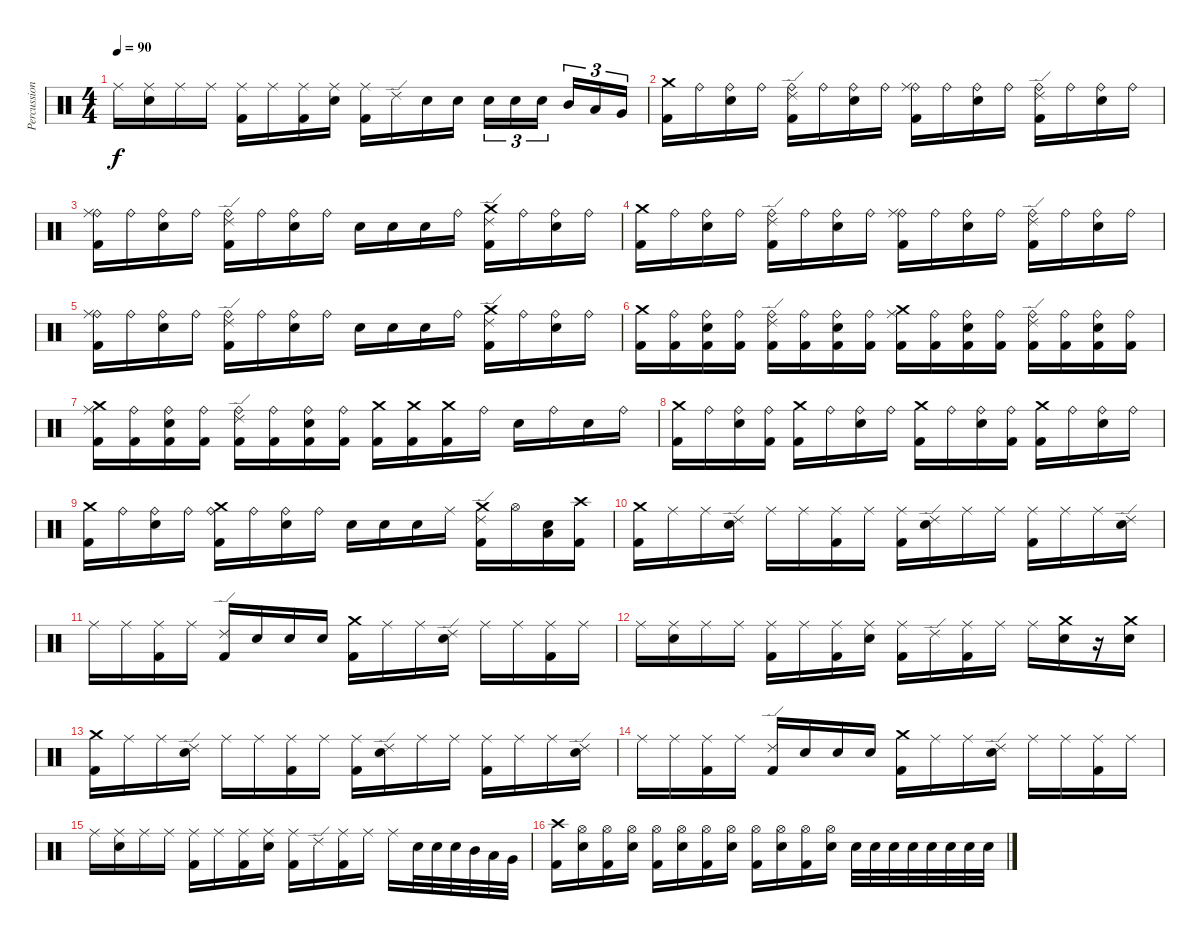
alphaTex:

\track ("Percussion" "Percussion") {instrument percussion}
\staff {score}
\articulation defaults
\ts (4 4)
\tempo 90
\clef neutral
\ks c "Ride (middle)".16{dy f}
("Ride (middle)" "Snare (hit) 2").16 "Ride (middle)".16 "Ride (middle)".16 ("Ride (middle)" "Kick (hit) 2").16 "Ride (middle)".16 ("Ride (middle)" "Kick (hit) 2").16 ("Ride (middle)" "Snare (hit) 2").16 ("Ride (middle)" "Kick (hit) 2").16 "Ride (edge) 2".16 "Snare (hit) 2".16 "Snare (hit) 2".16 "Snare (hit) 2".16{tu (3 2)} "Snare (hit) 2".16{tu (3 2)} "Snare (hit) 2".16{tu (3 2) beam splitsecondary} "Mid Tom (hit)".16{tu (3 2)} "Low Tom (hit)".16{tu (3 2)} "Very Low Tom (hit)".16{tu (3 2)} |
("Crash medium (hit)" "Kick (hit) 2").16 "Ride (bell)".16 ("Ride (bell)" "Snare (hit) 2").16 "Ride (bell)".16 ("Ride (bell)" "Ride (edge) 2" "Kick (hit) 2").16 "Ride (bell)".16 ("Ride (bell)" "Snare (hit) 2").16 "Ride (bell)".16 ("Ride (bell)" "Ride (middle)" "Kick (hit) 2").16 "Ride (bell)".16 ("Ride (bell)" "Snare (hit) 2").16 "Ride (bell)".16 ("Ride (bell)" "Ride (edge) 2" "Kick (hit) 2").16 "Ride (bell)".16 ("Ride (bell)" "Snare (hit) 2").16 "Ride (bell)".16 |
("Ride (bell)" "Ride (middle)" "Kick (hit) 2").16 "Ride (bell)".16 ("Ride (bell)" "Snare (hit) 2").16 "Ride (bell)".16 ("Ride (bell)" "Ride (edge) 2" "Kick (hit) 2").16 "Ride (bell)".16 ("Ride (bell)" "Snare (hit) 2").16 "Ride (bell)".16 "Snare (hit) 2".16 "Snare (hit) 2".16 "Snare (hit) 2".16 "Ride (bell)".16 ("Crash medium (hit)" "Ride (edge) 2" "Kick (hit) 2").16 "Ride (bell)".16 ("Ride (bell)" "Snare (hit) 2").16 "Ride (bell)".16 |
("Crash medium (hit)" "Kick (hit) 2").16 "Ride (bell)".16 ("Ride (bell)" "Snare (hit) 2").16 "Ride (bell)".16 ("Ride (bell)" "Ride (edge) 2" "Kick (hit) 2").16 "Ride (bell)".16 ("Ride (bell)" "Snare (hit) 2").16 "Ride (bell)".16 ("Ride (bell)" "Ride (middle)" "Kick (hit) 2").16 "Ride (bell)".16 ("Ride (bell)" "Snare (hit) 2").16 "Ride (bell)".16 ("Ride (bell)" "Ride (edge) 2" "Kick (hit) 2").16 "Ride (bell)".16 ("Ride (bell)" "Snare (hit) 2").16 "Ride (bell)".16 |
("Ride (bell)" "Ride (middle)" "Kick (hit) 2").16 "Ride (bell)".16 ("Ride (bell)" "Snare (hit) 2").16 "Ride (bell)".16 ("Ride (bell)" "Ride (edge) 2" "Kick (hit) 2").16 "Ride (bell)".16 ("Ride (bell)" "Snare (hit) 2").16 "Ride (bell)".16 "Snare (hit) 2".16 "Snare (hit) 2".16 "Snare (hit) 2".16 "Ride (bell)".16 ("Crash medium (hit)" "Ride (edge) 2" "Kick (hit) 2").16 "Ride (bell)".16 ("Ride (bell)" "Snare (hit) 2").16 "Ride (bell)".16 |
("Crash medium (hit)" "Kick (hit) 2").16 ("Ride (bell)" "Kick (hit) 2").16 ("Ride (bell)" "Snare (hit) 2" "Kick (hit) 2").16 ("Ride (bell)" "Kick (hit) 2").16 ("Ride (bell)" "Ride (edge) 2" "Kick (hit) 2").16 ("Ride (bell)" "Kick (hit) 2").16 ("Ride (bell)" "Snare (hit) 2" "Kick (hit) 2").16 ("Ride (bell)" "Kick (hit) 2").16 ("Crash medium (hit)" "Ride (middle)" "Kick (hit) 2").16 ("Ride (bell)" "Kick (hit) 2").16 ("Ride (bell)" "Snare (hit) 2" "Kick (hit) 2").16 ("Ride (bell)" "Kick (hit) 2").16 ("Ride (bell)" "Ride (edge) 2" "Kick (hit) 2").16 ("Ride (bell)" "Kick (hit) 2").16 ("Ride (bell)" "Snare (hit) 2" "Kick (hit) 2").16 ("Ride (bell)" "Kick (hit) 2").16 |
("Crash medium (hit)" "Ride (middle)" "Kick (hit) 2").16 ("Ride (bell)" "Kick (hit) 2").16 ("Ride (bell)" "Snare (hit) 2" "Kick (hit) 2").16 ("Ride (bell)" "Kick (hit) 2").16 ("Ride (bell)" "Ride (edge) 2" "Kick (hit) 2").16 ("Ride (bell)" "Kick (hit) 2").16 ("Ride (bell)" "Snare (hit) 2" "Kick (hit) 2").16 ("Ride (bell)" "Kick (hit) 2").16 ("Crash medium (hit)" "Kick (hit) 2").16 ("Crash medium (hit)" "Kick (hit) 2").16 ("Crash medium (hit)" "Kick (hit) 2").16 "Ride (bell)".16 "Snare (hit) 2".16 "Ride (bell)".16 "Snare (hit) 2".16 "Ride (bell)".16 |
("Crash medium (hit)" "Kick (hit) 2").16 "Ride (bell)".16 ("Ride (bell)" "Snare (hit) 2").16 ("Ride (bell)" "Kick (hit) 2").16 ("Crash medium (hit)" "Kick (hit) 2").16 "Ride (bell)".16 ("Ride (bell)" "Snare (hit) 2").16 "Ride (bell)".16 ("Crash medium (hit)" "Kick (hit) 2").16 "Ride (bell)".16 ("Ride (bell)" "Snare (hit) 2").16 ("Ride (bell)" "Kick (hit) 2").16 ("Crash medium (hit)" "Kick (hit) 2").16 "Ride (bell)".16 ("Ride (bell)" "Snare (hit) 2").16 "Ride (bell)".16 |
("Crash medium (hit)" "Kick (hit) 2").16 "Ride (bell)".16 ("Ride (bell)" "Snare (hit) 2").16 "Ride (bell)".16 ("Crash medium (hit)" "Ride (bell)" "Kick (hit) 2").16 "Ride (bell)".16 ("Ride (bell)" "Snare (hit) 2").16 "Ride (bell)".16 "Snare (hit) 2".16 "Snare (hit) 2".16 "Snare (hit) 2".16 "Ride (middle)".16 ("Crash medium (hit)" "Ride (edge) 2" "Kick (hit) 2").16 "Hi-Hat (open)".16 ("Low Tom (hit)" "Snare (hit) 2").16 ("Crash high (hit)" "Kick (hit) 2").16 |
("Crash medium (hit)" "Kick (hit) 2").16 "Ride (middle)".16 "Ride (middle)".16 ("Ride (edge) 2" "Snare (hit) 2").16 "Ride (middle)".16 "Ride (middle)".16 ("Ride (middle)" "Kick (hit) 2").16 "Ride (middle)".16 ("Ride (middle)" "Kick (hit) 2").16 ("Ride (edge) 2" "Snare (hit) 2").16 "Ride (middle)".16 "Ride (middle)".16 ("Ride (middle)" "Kick (hit) 2").16 "Ride (middle)".16 "Ride (middle)".16 ("Ride (edge) 2" "Snare (hit) 2").16 |
"Ride (middle)".16 "Ride (middle)".16 ("Ride (middle)" "Kick (hit) 2").16 "Ride (middle)".16 ("Ride (edge) 2" "Kick (hit) 2").16 "Snare (hit) 2".16 "Snare (hit) 2".16 "Snare (hit) 2".16 ("Crash medium (hit)" "Kick (hit) 2").16 "Ride (middle)".16 "Ride (middle)".16 ("Ride (edge) 2" "Snare (hit) 2").16 "Ride (middle)".16 "Ride (middle)".16 ("Ride (middle)" "Kick (hit) 2").16 "Ride (middle)".16 |
"Ride (middle)".16 ("Ride (middle)" "Snare (hit) 2").16 "Ride (middle)".16 "Ride (middle)".16 ("Ride (middle)" "Kick (hit) 2").16 "Ride (middle)".16 ("Ride (middle)" "Kick (hit) 2").16 ("Ride (middle)" "Snare (hit) 2").16 ("Ride (middle)" "Kick (hit) 2").16 "Ride (edge) 2".16 ("Ride (middle)" "Kick (hit) 2").16 "Ride (middle)".16 "Ride (middle)".16 ("Crash medium (hit)" "Snare (hit) 2").16 r.16 ("Crash medium (hit)" "Snare (hit) 2").16 |
("Crash medium (hit)" "Kick (hit) 2").16 "Ride (middle)".16 "Ride (middle)".16 ("Ride (edge) 2" "Snare (hit) 2").16 "Ride (middle)".16 "Ride (middle)".16 ("Ride (middle)" "Kick (hit) 2").16 "Ride (middle)".16 ("Ride (middle)" "Kick (hit) 2").16 ("Ride (edge) 2" "Snare (hit) 2").16 "Ride (middle)".16 "Ride (middle)".16 ("Ride (middle)" "Kick (hit) 2").16 "Ride (middle)".16 "Ride (middle)".16 ("Ride (edge) 2" "Snare (hit) 2").16 |
"Ride (middle)".16 "Ride (middle)".16 ("Ride (middle)" "Kick (hit) 2").16 "Ride (middle)".16 ("Ride (edge) 2" "Kick (hit) 2").16 "Snare (hit) 2".16 "Snare (hit) 2".16 "Snare (hit) 2".16 ("Crash medium (hit)" "Kick (hit) 2").16 "Ride (middle)".16 "Ride (middle)".16 ("Ride (edge) 2" "Snare (hit) 2").16 "Ride (middle)".16 "Ride (middle)".16 ("Ride (middle)" "Kick (hit) 2").16 "Ride (middle)".16 |
"Ride (middle)".16 ("Ride (middle)" "Snare (hit) 2").16 "Ride (middle)".16 "Ride (middle)".16 ("Ride (middle)" "Kick (hit) 2").16 "Ride (middle)".16 ("Ride (middle)" "Kick (hit) 2").16 ("Ride (middle)" "Snare (hit) 2").16 ("Ride (middle)" "Kick (hit) 2").16 "Ride (edge) 2".16 ("Ride (middle)" "Kick (hit) 2").16 "Ride (middle)".16 "Ride (middle)".16 "Snare (hit) 2".32 "Snare (hit) 2".32 "Snare (hit) 2".32 "Mid Tom (hit)".32 "Low Tom (hit)".32 "Very Low Tom (hit)".32 |
("Crash high (hit)" "Kick (hit) 2").16 ("Hi-Hat (open)" "Snare (hit) 2").16 ("Hi-Hat (open)" "Kick (hit) 2").16 ("Hi-Hat (open)" "Snare (hit) 2").16 ("Hi-Hat (open)" "Kick (hit) 2").16 ("Hi-Hat (open)" "Snare (hit) 2").16 ("Hi-Hat (open)" "Kick (hit) 2").16 ("Hi-Hat (open)" "Snare (hit) 2").16 ("Hi-Hat (open)" "Kick (hit) 2").16 ("Hi-Hat (open)" "Snare (hit) 2").16 ("Hi-Hat (open)" "Kick (hit) 2").16 ("Hi-Hat (open)" "Snare (hit) 2").16 "Snare (hit) 2".32 "Snare (hit) 2".32 "Snare (hit) 2".32 "Snare (hit) 2".32 "Snare (hit) 2".32 "Snare (hit) 2".32 "Snare (hit) 2".32 "Snare (hit) 2".32
